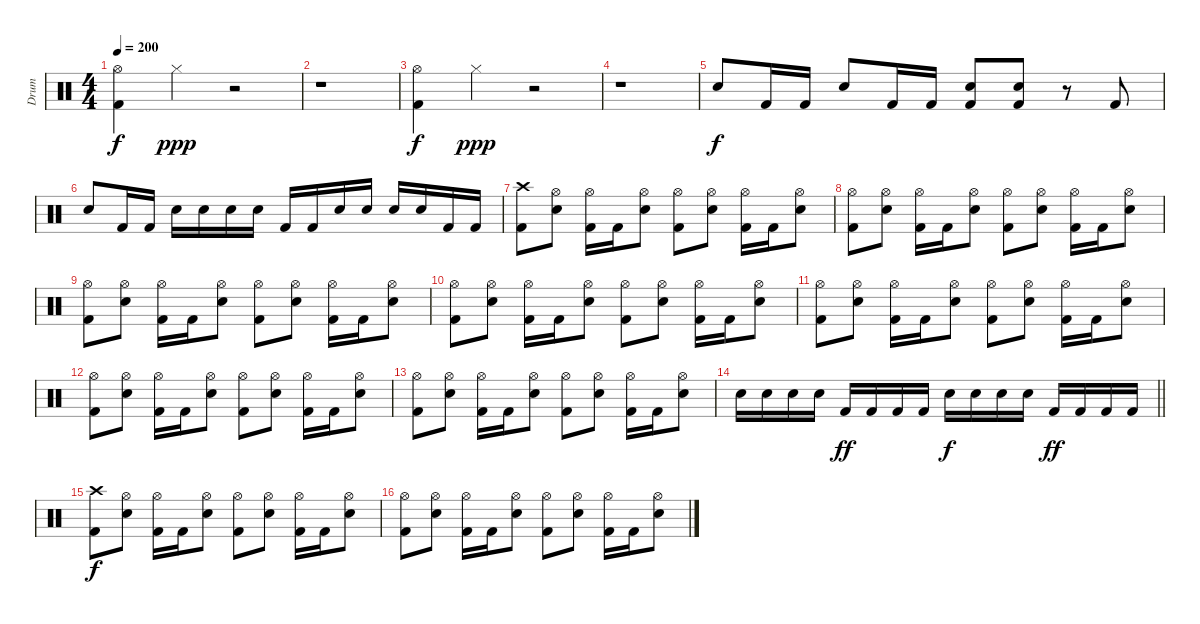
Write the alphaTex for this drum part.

\track ("Drum" "Drum") {instrument percussion}
\staff {score}
\articulation defaults
\ts (4 4)
\tempo 200
\clef neutral
\ks c
("Kick (hit) 2" "Hi-Hat (open)").4{dy f} "Hi-Hat (closed)".4{dy ppp} r.2 |
r.1 |
("Kick (hit) 2" "Hi-Hat (open)").4{dy f} "Hi-Hat (closed)".4{dy ppp} r.2 |
r.1 |
"Snare (hit) 2".8{dy f} "Kick (hit) 2".16 "Kick (hit) 2".16 "Snare (hit) 2".8 "Kick (hit) 2".16 "Kick (hit) 2".16 ("Kick (hit) 2" "Snare (hit) 2").8 ("Kick (hit) 2" "Snare (hit) 2").8 r.8 "Kick (hit) 2".8 |
"Snare (hit) 2".8 "Kick (hit) 2".16 "Kick (hit) 2".16 "Snare (hit) 2".16 "Snare (hit) 2".16 "Snare (hit) 2".16 "Snare (hit) 2".16 "Kick (hit) 2".16 "Kick (hit) 2".16 "Snare (hit) 2".16 "Snare (hit) 2".16 "Snare (hit) 2".16 "Snare (hit) 2".16 "Kick (hit) 2".16 "Kick (hit) 2".16 |
("Kick (hit) 2" "Crash high (hit)").8 ("Snare (hit) 2" "Hi-Hat (open)").8 ("Kick (hit) 2" "Hi-Hat (open)").16 "Kick (hit) 2".16 ("Snare (hit) 2" "Hi-Hat (open)").8 ("Kick (hit) 2" "Hi-Hat (open)").8 ("Snare (hit) 2" "Hi-Hat (open)").8 ("Kick (hit) 2" "Hi-Hat (open)").16 "Kick (hit) 2".16 ("Snare (hit) 2" "Hi-Hat (open)").8 |
("Kick (hit) 2" "Hi-Hat (open)").8 ("Snare (hit) 2" "Hi-Hat (open)").8 ("Kick (hit) 2" "Hi-Hat (open)").16 "Kick (hit) 2".16 ("Snare (hit) 2" "Hi-Hat (open)").8 ("Kick (hit) 2" "Hi-Hat (open)").8 ("Snare (hit) 2" "Hi-Hat (open)").8 ("Kick (hit) 2" "Hi-Hat (open)").16 "Kick (hit) 2".16 ("Snare (hit) 2" "Hi-Hat (open)").8 |
("Kick (hit) 2" "Hi-Hat (open)").8 ("Snare (hit) 2" "Hi-Hat (open)").8 ("Kick (hit) 2" "Hi-Hat (open)").16 "Kick (hit) 2".16 ("Snare (hit) 2" "Hi-Hat (open)").8 ("Kick (hit) 2" "Hi-Hat (open)").8 ("Snare (hit) 2" "Hi-Hat (open)").8 ("Kick (hit) 2" "Hi-Hat (open)").16 "Kick (hit) 2".16 ("Snare (hit) 2" "Hi-Hat (open)").8 |
("Kick (hit) 2" "Hi-Hat (open)").8 ("Snare (hit) 2" "Hi-Hat (open)").8 ("Kick (hit) 2" "Hi-Hat (open)").16 "Kick (hit) 2".16 ("Snare (hit) 2" "Hi-Hat (open)").8 ("Kick (hit) 2" "Hi-Hat (open)").8 ("Snare (hit) 2" "Hi-Hat (open)").8 ("Kick (hit) 2" "Hi-Hat (open)").16 "Kick (hit) 2".16 ("Snare (hit) 2" "Hi-Hat (open)").8 |
("Kick (hit) 2" "Hi-Hat (open)").8 ("Snare (hit) 2" "Hi-Hat (open)").8 ("Kick (hit) 2" "Hi-Hat (open)").16 "Kick (hit) 2".16 ("Snare (hit) 2" "Hi-Hat (open)").8 ("Kick (hit) 2" "Hi-Hat (open)").8 ("Snare (hit) 2" "Hi-Hat (open)").8 ("Kick (hit) 2" "Hi-Hat (open)").16 "Kick (hit) 2".16 ("Snare (hit) 2" "Hi-Hat (open)").8 |
("Kick (hit) 2" "Hi-Hat (open)").8 ("Snare (hit) 2" "Hi-Hat (open)").8 ("Kick (hit) 2" "Hi-Hat (open)").16 "Kick (hit) 2".16 ("Snare (hit) 2" "Hi-Hat (open)").8 ("Kick (hit) 2" "Hi-Hat (open)").8 ("Snare (hit) 2" "Hi-Hat (open)").8 ("Kick (hit) 2" "Hi-Hat (open)").16 "Kick (hit) 2".16 ("Snare (hit) 2" "Hi-Hat (open)").8 |
("Kick (hit) 2" "Hi-Hat (open)").8 ("Snare (hit) 2" "Hi-Hat (open)").8 ("Kick (hit) 2" "Hi-Hat (open)").16 "Kick (hit) 2".16 ("Snare (hit) 2" "Hi-Hat (open)").8 ("Kick (hit) 2" "Hi-Hat (open)").8 ("Snare (hit) 2" "Hi-Hat (open)").8 ("Kick (hit) 2" "Hi-Hat (open)").16 "Kick (hit) 2".16 ("Snare (hit) 2" "Hi-Hat (open)").8 |
\barLineRight lightlight "Snare (hit) 2".16 "Snare (hit) 2".16 "Snare (hit) 2".16 "Snare (hit) 2".16 "Kick (hit) 2".16{dy ff} "Kick (hit) 2".16 "Kick (hit) 2".16 "Kick (hit) 2".16 "Snare (hit) 2".16{dy f} "Snare (hit) 2".16 "Snare (hit) 2".16 "Snare (hit) 2".16 "Kick (hit) 2".16{dy ff} "Kick (hit) 2".16 "Kick (hit) 2".16 "Kick (hit) 2".16
|
\section ("" " ")
("Kick (hit) 2" "Crash high (hit)").8{dy f} ("Snare (hit) 2" "Hi-Hat (open)").8 ("Kick (hit) 2" "Hi-Hat (open)").16 "Kick (hit) 2".16 ("Snare (hit) 2" "Hi-Hat (open)").8 ("Kick (hit) 2" "Hi-Hat (open)").8 ("Snare (hit) 2" "Hi-Hat (open)").8 ("Kick (hit) 2" "Hi-Hat (open)").16 "Kick (hit) 2".16 ("Snare (hit) 2" "Hi-Hat (open)").8 |
("Kick (hit) 2" "Hi-Hat (open)").8 ("Snare (hit) 2" "Hi-Hat (open)").8 ("Kick (hit) 2" "Hi-Hat (open)").16 "Kick (hit) 2".16 ("Snare (hit) 2" "Hi-Hat (open)").8 ("Kick (hit) 2" "Hi-Hat (open)").8 ("Snare (hit) 2" "Hi-Hat (open)").8 ("Kick (hit) 2" "Hi-Hat (open)").16 "Kick (hit) 2".16 ("Snare (hit) 2" "Hi-Hat (open)").8
